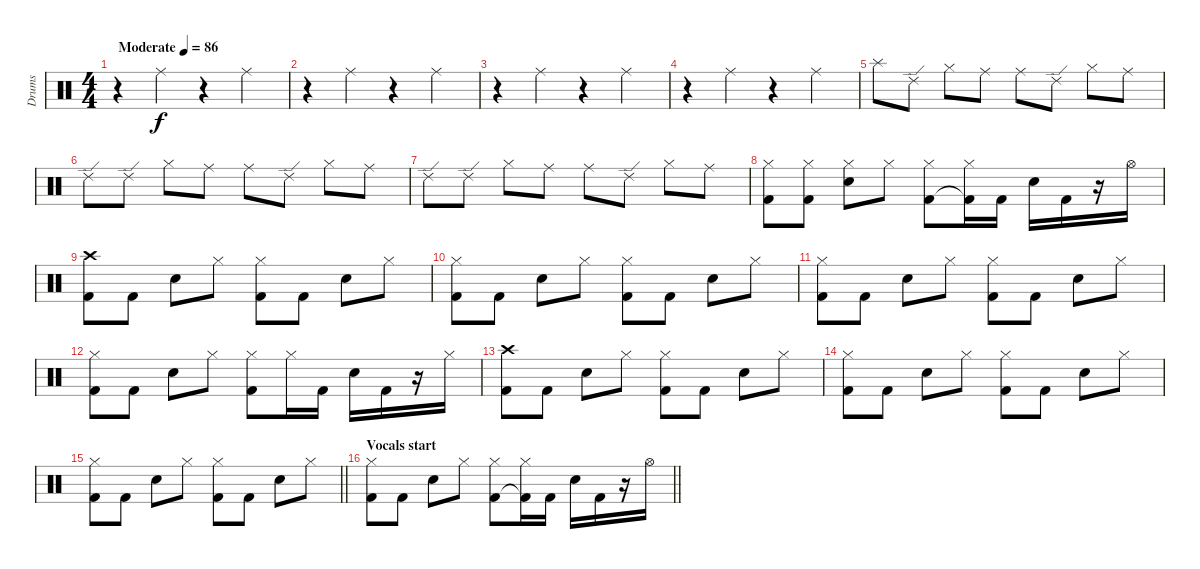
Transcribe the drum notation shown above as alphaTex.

\track ("Drums" "Drums") {instrument percussion}
\staff {score}
\articulation defaults
\ts (4 4)
\tempo (86 "Moderate")
\clef neutral
\ks aminor
r.4{dy f} "Ride (middle)".4 r.4 "Ride (middle)".4 |
r.4 "Ride (middle)".4 r.4 "Ride (middle)".4 |
r.4 "Ride (middle)".4 r.4 "Ride (middle)".4 |
r.4 "Ride (middle)".4 r.4 "Ride (middle)".4 |
"Splash (hit)".8 "Ride (edge) 2".8 "Hi-Hat (closed)".8 "Ride (middle)".8 "Ride (middle)".8 "Ride (edge) 2".8 "Hi-Hat (closed)".8 "Ride (middle)".8 |
"Ride (edge) 2".8 "Ride (edge) 2".8 "Hi-Hat (closed)".8 "Ride (middle)".8 "Ride (middle)".8 "Ride (edge) 2".8 "Hi-Hat (closed)".8 "Ride (middle)".8 |
"Ride (edge) 2".8 "Ride (edge) 2".8 "Hi-Hat (closed)".8 "Ride (middle)".8 "Ride (middle)".8 "Ride (edge) 2".8 "Hi-Hat (closed)".8 "Ride (middle)".8 |
("Hi-Hat (closed)" "Kick (hit) 2").8 ("Hi-Hat (closed)" "Kick (hit) 2").8 ("Hi-Hat (closed)" "Snare (hit) 2").8 "Hi-Hat (closed)".8 ("Hi-Hat (closed)" "Kick (hit) 2").8 ("Hi-Hat (closed)" "Kick (hit) 2"{t}).16 "Kick (hit) 2".16 "Snare (hit) 2".16 "Kick (hit) 2".16 r.16 "Hi-Hat (open)".16 |
("Crash high (hit)" "Kick (hit) 2").8 "Kick (hit) 2".8 "Snare (hit) 2".8 "Hi-Hat (closed)".8 ("Hi-Hat (closed)" "Kick (hit) 2").8 "Kick (hit) 2".8 "Snare (hit) 2".8 "Hi-Hat (closed)".8 |
("Hi-Hat (closed)" "Kick (hit) 2").8 "Kick (hit) 2".8 "Snare (hit) 2".8 "Hi-Hat (closed)".8 ("Hi-Hat (closed)" "Kick (hit) 2").8 "Kick (hit) 2".8 "Snare (hit) 2".8 "Hi-Hat (closed)".8 |
("Hi-Hat (closed)" "Kick (hit) 2").8 "Kick (hit) 2".8 "Snare (hit) 2".8 "Hi-Hat (closed)".8 ("Hi-Hat (closed)" "Kick (hit) 2").8 "Kick (hit) 2".8 "Snare (hit) 2".8 "Hi-Hat (closed)".8 |
("Hi-Hat (closed)" "Kick (hit) 2").8 "Kick (hit) 2".8 "Snare (hit) 2".8 "Hi-Hat (closed)".8 ("Hi-Hat (closed)" "Kick (hit) 2").8 "Hi-Hat (closed)".16 "Kick (hit) 2".16 "Snare (hit) 2".16 "Kick (hit) 2".16 r.16 "Hi-Hat (closed)".16 |
("Crash high (hit)" "Kick (hit) 2").8 "Kick (hit) 2".8 "Snare (hit) 2".8 "Hi-Hat (closed)".8 ("Hi-Hat (closed)" "Kick (hit) 2").8 "Kick (hit) 2".8 "Snare (hit) 2".8 "Hi-Hat (closed)".8 |
("Hi-Hat (closed)" "Kick (hit) 2").8 "Kick (hit) 2".8 "Snare (hit) 2".8 "Hi-Hat (closed)".8 ("Hi-Hat (closed)" "Kick (hit) 2").8 "Kick (hit) 2".8 "Snare (hit) 2".8 "Hi-Hat (closed)".8 |
\barLineRight lightlight
("Hi-Hat (closed)" "Kick (hit) 2").8 "Kick (hit) 2".8 "Snare (hit) 2".8 "Hi-Hat (closed)".8 ("Hi-Hat (closed)" "Kick (hit) 2").8 "Kick (hit) 2".8 "Snare (hit) 2".8 "Hi-Hat (closed)".8 |
\section ("" "Vocals start")
\barLineRight lightlight
("Hi-Hat (closed)" "Kick (hit) 2").8 "Kick (hit) 2".8 "Snare (hit) 2".8 "Hi-Hat (closed)".8 ("Hi-Hat (closed)" "Kick (hit) 2").8 ("Hi-Hat (closed)" "Kick (hit) 2"{t}).16 "Kick (hit) 2".16 "Snare (hit) 2".16 "Kick (hit) 2".16 r.16 "Hi-Hat (open)".16
